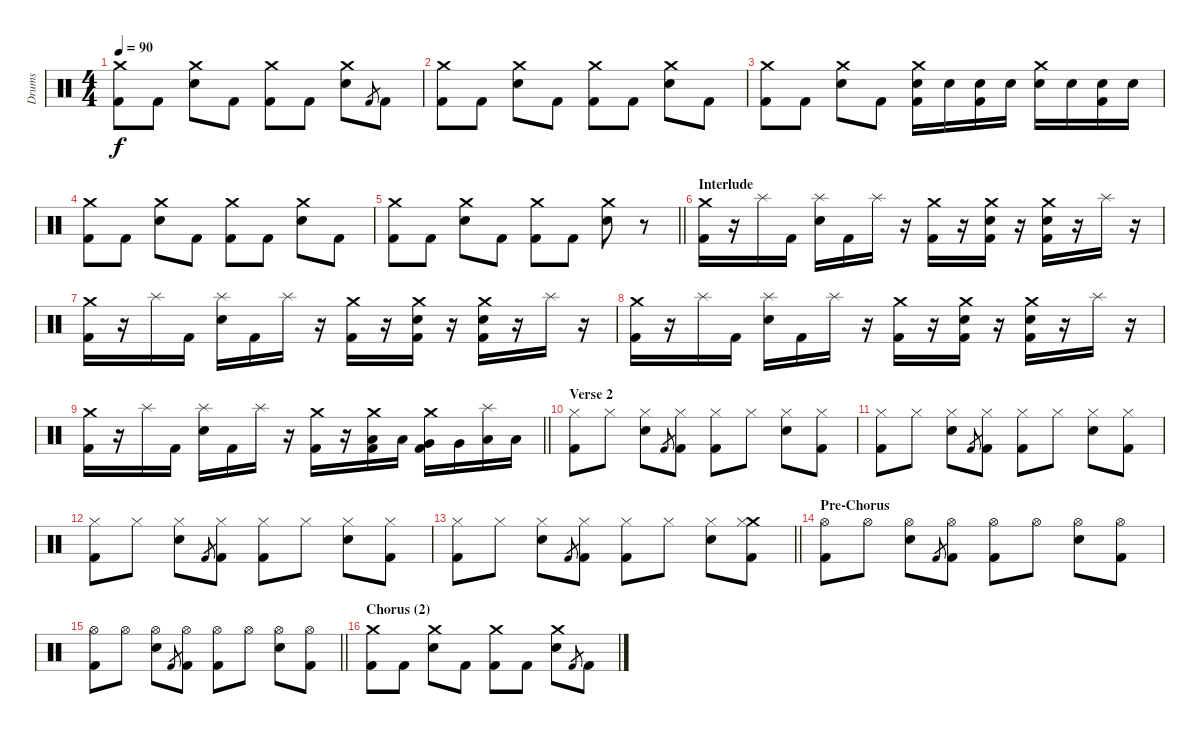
\track ("Drums" "Drums") {instrument percussion}
\staff {score}
\articulation defaults
\ts (4 4)
\tempo 90
\clef neutral
\ks c
("Crash medium (hit)" "Kick (hit) 2").8{dy f} "Kick (hit) 2".8 ("Crash medium (hit)" "Electric Snare (hit)").8 "Kick (hit) 2".8 ("Crash medium (hit)" "Kick (hit) 2").8 "Kick (hit) 2".8 ("Crash medium (hit)" "Electric Snare (hit)").8 "Kick (hit) 2".8{gr} "Kick (hit) 2".8 |
("Crash medium (hit)" "Kick (hit) 2").8 "Kick (hit) 2".8 ("Crash medium (hit)" "Electric Snare (hit)").8 "Kick (hit) 2".8 ("Crash medium (hit)" "Kick (hit) 2").8 "Kick (hit) 2".8 ("Crash medium (hit)" "Electric Snare (hit)").8 "Kick (hit) 2".8 |
("Crash medium (hit)" "Kick (hit) 2").8 "Kick (hit) 2".8 ("Crash medium (hit)" "Electric Snare (hit)").8 "Kick (hit) 2".8 ("Crash medium (hit)" "Electric Snare (hit)" "Kick (hit) 2").16 "Electric Snare (hit)".16 ("Electric Snare (hit)" "Kick (hit) 2").16 "Electric Snare (hit)".16 ("Crash medium (hit)" "Electric Snare (hit)").16 "Electric Snare (hit)".16 ("Electric Snare (hit)" "Kick (hit) 2").16 "Electric Snare (hit)".16 |
("Crash medium (hit)" "Kick (hit) 2").8 "Kick (hit) 2".8 ("Crash medium (hit)" "Electric Snare (hit)").8 "Kick (hit) 2".8 ("Crash medium (hit)" "Kick (hit) 2").8 "Kick (hit) 2".8 ("Crash medium (hit)" "Electric Snare (hit)").8 "Kick (hit) 2".8 |
\barLineRight lightlight
("Crash medium (hit)" "Kick (hit) 2").8 "Kick (hit) 2".8 ("Crash medium (hit)" "Electric Snare (hit)").8 "Kick (hit) 2".8 ("Crash medium (hit)" "Kick (hit) 2").8 "Kick (hit) 2".8 ("Crash medium (hit)" "Electric Snare (hit)").8 r.8 |
\section ("" "Interlude")
("Crash medium (hit)" "Kick (hit) 2").16 r.16 "Splash (hit)".16 "Kick (hit) 2".16 ("Splash (hit)" "Electric Snare (hit)").16 "Kick (hit) 2".16 "Splash (hit)".16 r.16 ("Crash medium (hit)" "Kick (hit) 2").16 r.16 ("Crash medium (hit)" "Electric Snare (hit)" "Kick (hit) 2").16 r.16 ("Crash medium (hit)" "Electric Snare (hit)" "Kick (hit) 2").16 r.16 "Splash (hit)".16 r.16 |
("Crash medium (hit)" "Kick (hit) 2").16 r.16 "Splash (hit)".16 "Kick (hit) 2".16 ("Splash (hit)" "Electric Snare (hit)").16 "Kick (hit) 2".16 "Splash (hit)".16 r.16 ("Crash medium (hit)" "Kick (hit) 2").16 r.16 ("Crash medium (hit)" "Electric Snare (hit)" "Kick (hit) 2").16 r.16 ("Crash medium (hit)" "Electric Snare (hit)" "Kick (hit) 2").16 r.16 "Splash (hit)".16 r.16 |
("Crash medium (hit)" "Kick (hit) 2").16 r.16 "Splash (hit)".16 "Kick (hit) 2".16 ("Splash (hit)" "Electric Snare (hit)").16 "Kick (hit) 2".16 "Splash (hit)".16 r.16 ("Crash medium (hit)" "Kick (hit) 2").16 r.16 ("Crash medium (hit)" "Electric Snare (hit)" "Kick (hit) 2").16 r.16 ("Crash medium (hit)" "Electric Snare (hit)" "Kick (hit) 2").16 r.16 "Splash (hit)".16 r.16 |
\barLineRight lightlight
("Crash medium (hit)" "Kick (hit) 2").16 r.16 "Splash (hit)".16 "Kick (hit) 2".16 ("Splash (hit)" "Electric Snare (hit)").16 "Kick (hit) 2".16 "Splash (hit)".16 r.16 ("Crash medium (hit)" "Kick (hit) 2").16 r.16 ("Crash medium (hit)" "Low Tom (hit)" "Kick (hit) 2").16 "Low Tom (hit)".16 ("Crash medium (hit)" "Very Low Tom (hit)" "Kick (hit) 2").16 "Very Low Tom (hit)".16 ("Splash (hit)" "Low Floor Tom (hit)").16 "Low Floor Tom (hit)".16 |
\section ("" "Verse 2")
("Hi-Hat (closed)" "Kick (hit) 2").8 "Hi-Hat (closed)".8 ("Hi-Hat (closed)" "Electric Snare (hit)").8 "Kick (hit) 2".8{gr} ("Hi-Hat (closed)" "Kick (hit) 2").8 ("Hi-Hat (closed)" "Kick (hit) 2").8 "Hi-Hat (closed)".8 ("Hi-Hat (closed)" "Electric Snare (hit)").8 ("Hi-Hat (closed)" "Kick (hit) 2").8 |
("Hi-Hat (closed)" "Kick (hit) 2").8 "Hi-Hat (closed)".8 ("Hi-Hat (closed)" "Electric Snare (hit)").8 "Kick (hit) 2".8{gr} ("Hi-Hat (closed)" "Kick (hit) 2").8 ("Hi-Hat (closed)" "Kick (hit) 2").8 "Hi-Hat (closed)".8 ("Hi-Hat (closed)" "Electric Snare (hit)").8 ("Hi-Hat (closed)" "Kick (hit) 2").8 |
("Hi-Hat (closed)" "Kick (hit) 2").8 "Hi-Hat (closed)".8 ("Hi-Hat (closed)" "Electric Snare (hit)").8 "Kick (hit) 2".8{gr} ("Hi-Hat (closed)" "Kick (hit) 2").8 ("Hi-Hat (closed)" "Kick (hit) 2").8 "Hi-Hat (closed)".8 ("Hi-Hat (closed)" "Electric Snare (hit)").8 ("Hi-Hat (closed)" "Kick (hit) 2").8 |
\barLineRight lightlight
("Hi-Hat (closed)" "Kick (hit) 2").8 "Hi-Hat (closed)".8 ("Hi-Hat (closed)" "Electric Snare (hit)").8 "Kick (hit) 2".8{gr} ("Hi-Hat (closed)" "Kick (hit) 2").8 ("Hi-Hat (closed)" "Kick (hit) 2").8 "Hi-Hat (closed)".8 ("Hi-Hat (closed)" "Electric Snare (hit)").8 ("Crash medium (hit)" "Hi-Hat (closed)" "Kick (hit) 2").8 |
\section ("" "Pre-Chorus")
("Hi-Hat (open)" "Kick (hit) 2").8 "Hi-Hat (open)".8 ("Hi-Hat (open)" "Electric Snare (hit)").8 "Kick (hit) 2".8{gr} ("Hi-Hat (open)" "Kick (hit) 2").8 ("Hi-Hat (open)" "Kick (hit) 2").8 "Hi-Hat (open)".8 ("Hi-Hat (open)" "Electric Snare (hit)").8 ("Hi-Hat (open)" "Kick (hit) 2").8 |
\barLineRight lightlight
("Hi-Hat (open)" "Kick (hit) 2").8 "Hi-Hat (open)".8 ("Hi-Hat (open)" "Electric Snare (hit)").8 "Kick (hit) 2".8{gr} ("Hi-Hat (open)" "Kick (hit) 2").8 ("Hi-Hat (open)" "Kick (hit) 2").8 "Hi-Hat (open)".8 ("Hi-Hat (open)" "Electric Snare (hit)").8 ("Hi-Hat (open)" "Kick (hit) 2").8 |
\section ("" "Chorus (2)")
("Crash medium (hit)" "Kick (hit) 2").8 "Kick (hit) 2".8 ("Crash medium (hit)" "Electric Snare (hit)").8 "Kick (hit) 2".8 ("Crash medium (hit)" "Kick (hit) 2").8 "Kick (hit) 2".8 ("Crash medium (hit)" "Electric Snare (hit)").8 "Kick (hit) 2".8{gr} "Kick (hit) 2".8
